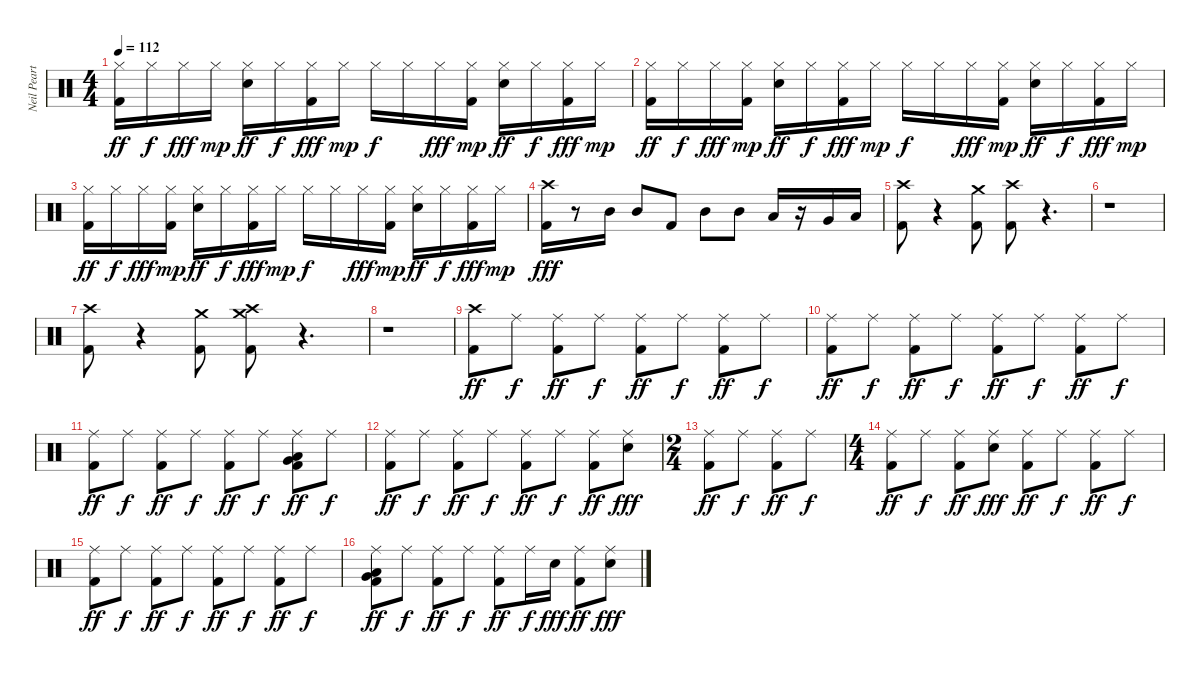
\track ("Neil Peart" "Neil Peart") {instrument percussion}
\staff {score}
\articulation defaults
\ts (4 4)
\tempo 112
\clef neutral
\ks c
("Kick (hit) 2" "Hi-Hat (closed)").16{dy ff} "Hi-Hat (closed)".16{dy f} "Hi-Hat (closed)".16{dy fff} "Hi-Hat (closed)".16{dy mp} ("Snare (hit) 2" "Hi-Hat (closed)").16{dy ff} "Hi-Hat (closed)".16{dy f} ("Kick (hit) 2" "Hi-Hat (closed)").16{dy fff} "Hi-Hat (closed)".16{dy mp} "Hi-Hat (closed)".16{dy f} "Hi-Hat (closed)".16 "Hi-Hat (closed)".16{dy fff} ("Kick (hit) 2" "Hi-Hat (closed)").16{dy mp} ("Snare (hit) 2" "Hi-Hat (closed)").16{dy ff} "Hi-Hat (closed)".16{dy f} ("Kick (hit) 2" "Hi-Hat (closed)").16{dy fff} "Hi-Hat (closed)".16{dy mp} |
("Kick (hit) 2" "Hi-Hat (closed)").16{dy ff} "Hi-Hat (closed)".16{dy f} "Hi-Hat (closed)".16{dy fff} ("Kick (hit) 2" "Hi-Hat (closed)").16{dy mp} ("Snare (hit) 2" "Hi-Hat (closed)").16{dy ff} "Hi-Hat (closed)".16{dy f} ("Kick (hit) 2" "Hi-Hat (closed)").16{dy fff} "Hi-Hat (closed)".16{dy mp} "Hi-Hat (closed)".16{dy f} "Hi-Hat (closed)".16 "Hi-Hat (closed)".16{dy fff} ("Kick (hit) 2" "Hi-Hat (closed)").16{dy mp} ("Snare (hit) 2" "Hi-Hat (closed)").16{dy ff} "Hi-Hat (closed)".16{dy f} ("Kick (hit) 2" "Hi-Hat (closed)").16{dy fff} "Hi-Hat (closed)".16{dy mp} |
("Kick (hit) 2" "Hi-Hat (closed)").16{dy ff} "Hi-Hat (closed)".16{dy f} "Hi-Hat (closed)".16{dy fff} ("Kick (hit) 2" "Hi-Hat (closed)").16{dy mp} ("Snare (hit) 2" "Hi-Hat (closed)").16{dy ff} "Hi-Hat (closed)".16{dy f} ("Kick (hit) 2" "Hi-Hat (closed)").16{dy fff} "Hi-Hat (closed)".16{dy mp} "Hi-Hat (closed)".16{dy f} "Hi-Hat (closed)".16 "Hi-Hat (closed)".16{dy fff} ("Kick (hit) 2" "Hi-Hat (closed)").16{dy mp} ("Snare (hit) 2" "Hi-Hat (closed)").16{dy ff} "Hi-Hat (closed)".16{dy f} ("Hi-Hat (closed)" "Kick (hit) 2").16{dy fff} "Hi-Hat (closed)".16{dy mp} |
("Crash high (hit)" "Kick (hit) 2").16{dy fff} r.8 "Mid Tom (hit)".16 "Mid Tom (hit)".8 "Kick (hit) 2".8 "Mid Tom (hit)".8 "Mid Tom (hit)".8 "Low Tom (hit)".16 r.16 "Very Low Tom (hit)".16 "Low Floor Tom (hit)".16 |
("Crash high (hit)" "Kick (hit) 2").8 r.4 ("Crash medium (hit)" "Kick (hit) 2").8 ("Crash high (hit)" "Kick (hit) 2").8 r.4{d} |
r.1 |
("Crash high (hit)" "Kick (hit) 2").8 r.4 ("Crash medium (hit)" "Kick (hit) 2").8 ("Crash medium (hit)" "Crash high (hit)" "Kick (hit) 2").8 r.4{d} |
r.1 |
("Crash high (hit)" "Kick (hit) 2").8{dy ff} "Ride (middle)".8{dy f} ("Kick (hit) 2" "Ride (middle)").8{dy ff} "Ride (middle)".8{dy f} ("Kick (hit) 2" "Ride (middle)").8{dy ff} "Ride (middle)".8{dy f} ("Kick (hit) 2" "Ride (middle)").8{dy ff} "Ride (middle)".8{dy f} |
("Kick (hit) 2" "Ride (middle)").8{dy ff} "Ride (middle)".8{dy f} ("Kick (hit) 2" "Ride (middle)").8{dy ff} "Ride (middle)".8{dy f} ("Kick (hit) 2" "Ride (middle)").8{dy ff} "Ride (middle)".8{dy f} ("Kick (hit) 2" "Ride (middle)").8{dy ff} "Ride (middle)".8{dy f} |
("Kick (hit) 2" "Ride (middle)").8{dy ff} "Ride (middle)".8{dy f} ("Kick (hit) 2" "Ride (middle)").8{dy ff} "Ride (middle)".8{dy f} ("Kick (hit) 2" "Ride (middle)").8{dy ff} "Ride (middle)".8{dy f} ("Very Low Tom (hit)" "Ride (middle)" "Low Tom (hit)" "Kick (hit) 2").8{dy ff} "Ride (middle)".8{dy f} |
("Kick (hit) 2" "Ride (middle)").8{dy ff} "Ride (middle)".8{dy f} ("Kick (hit) 2" "Ride (middle)").8{dy ff} "Ride (middle)".8{dy f} ("Kick (hit) 2" "Ride (middle)").8{dy ff} "Ride (middle)".8{dy f} ("Kick (hit) 2" "Ride (middle)").8{dy ff} ("Snare (hit) 2" "Ride (middle)").8{dy fff} |
\ts (2 4)
("Kick (hit) 2" "Ride (middle)").8{dy ff} "Ride (middle)".8{dy f} ("Kick (hit) 2" "Ride (middle)").8{dy ff} "Ride (middle)".8{dy f} |
\ts (4 4)
("Kick (hit) 2" "Ride (middle)").8{dy ff} "Ride (middle)".8{dy f} ("Kick (hit) 2" "Ride (middle)").8{dy ff} ("Snare (hit) 2" "Ride (middle)").8{dy fff} ("Kick (hit) 2" "Ride (middle)").8{dy ff} "Ride (middle)".8{dy f} ("Kick (hit) 2" "Ride (middle)").8{dy ff} "Ride (middle)".8{dy f} |
("Kick (hit) 2" "Ride (middle)").8{dy ff} "Ride (middle)".8{dy f} ("Kick (hit) 2" "Ride (middle)").8{dy ff} "Ride (middle)".8{dy f} ("Kick (hit) 2" "Ride (middle)").8{dy ff} "Ride (middle)".8{dy f} ("Kick (hit) 2" "Ride (middle)").8{dy ff} "Ride (middle)".8{dy f} |
("Very Low Tom (hit)" "Ride (middle)" "Low Tom (hit)" "Kick (hit) 2").8{dy ff} "Ride (middle)".8{dy f} ("Kick (hit) 2" "Ride (middle)").8{dy ff} "Ride (middle)".8{dy f} ("Kick (hit) 2" "Ride (middle)").8{dy ff} "Ride (middle)".16{dy f} "Snare (hit) 2".16{dy fff} ("Kick (hit) 2" "Ride (middle)").8{dy ff} ("Snare (hit) 2" "Ride (middle)").8{dy fff}
